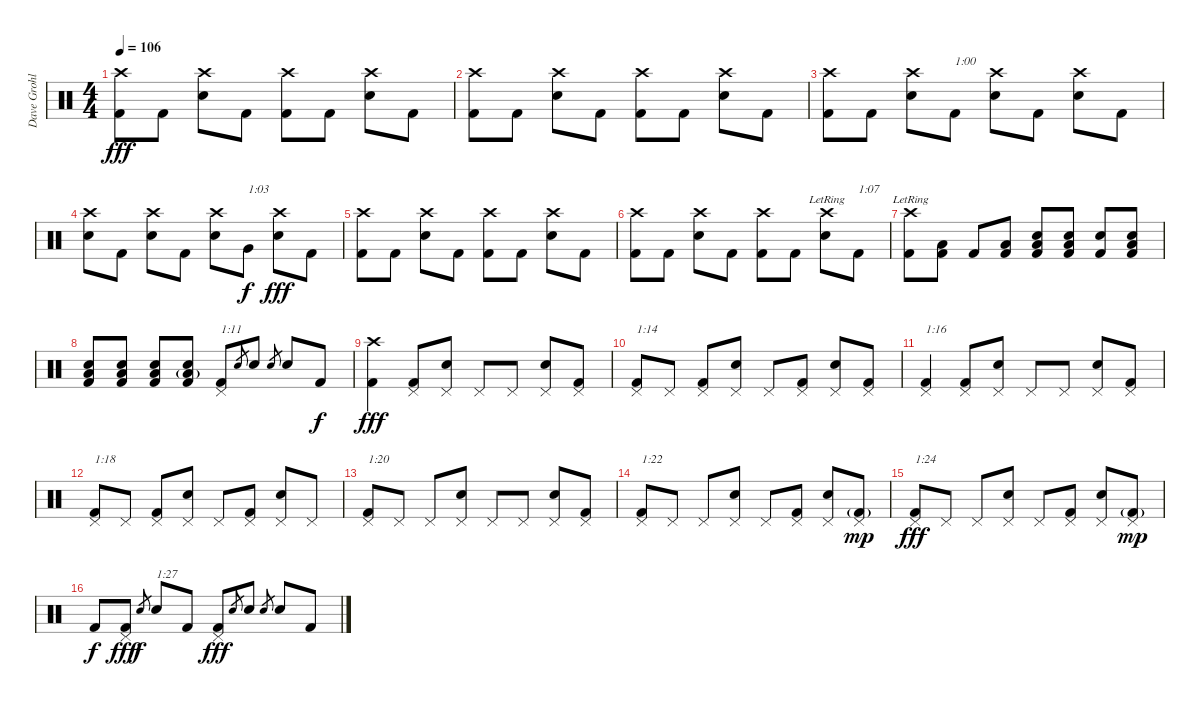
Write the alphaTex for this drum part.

\track ("Dave Grohl" "Dave Grohl") {instrument percussion}
\staff {score}
\articulation defaults
\ts (4 4)
\tempo 106
\clef neutral
\ks c
("Crash high (hit)" "Kick (hit) 2").8{dy fff} "Kick (hit) 2".8 ("Crash high (hit)" "Snare (hit) 2").8 "Kick (hit) 2".8 ("Crash high (hit)" "Kick (hit) 2").8 "Kick (hit) 2".8 ("Crash high (hit)" "Snare (hit) 2").8 "Kick (hit) 2".8 |
("Crash high (hit)" "Kick (hit) 2").8 "Kick (hit) 2".8 ("Crash high (hit)" "Snare (hit) 2").8 "Kick (hit) 2".8 ("Crash high (hit)" "Kick (hit) 2").8 "Kick (hit) 2".8 ("Crash high (hit)" "Snare (hit) 2").8 "Kick (hit) 2".8 |
("Crash high (hit)" "Kick (hit) 2").8 "Kick (hit) 2".8 ("Crash high (hit)" "Snare (hit) 2").8 "Kick (hit) 2".8{txt "1:00"} ("Crash high (hit)" "Snare (hit) 2").8 "Kick (hit) 2".8 ("Crash high (hit)" "Snare (hit) 2").8 "Kick (hit) 2".8 |
("Crash high (hit)" "Snare (hit) 2").8 "Kick (hit) 2".8 ("Crash high (hit)" "Snare (hit) 2").8 "Kick (hit) 2".8 ("Crash high (hit)" "Snare (hit) 2").8 "Very Low Tom (hit)".8{txt "1:03" dy f} ("Crash high (hit)" "Snare (hit) 2").8{dy fff} "Kick (hit) 2".8 |
("Crash high (hit)" "Kick (hit) 2").8 "Kick (hit) 2".8 ("Crash high (hit)" "Snare (hit) 2").8 "Kick (hit) 2".8 ("Crash high (hit)" "Kick (hit) 2").8 "Kick (hit) 2".8 ("Crash high (hit)" "Snare (hit) 2").8 "Kick (hit) 2".8 |
("Crash high (hit)" "Kick (hit) 2").8 "Kick (hit) 2".8 ("Crash high (hit)" "Snare (hit) 2").8 "Kick (hit) 2".8 ("Crash high (hit)" "Kick (hit) 2").8 "Kick (hit) 2".8 ("Crash high (hit)"{lr} "Snare (hit) 2").8 "Kick (hit) 2".8{txt "1:07"} |
("Crash high (hit)"{lr} "Kick (hit) 2").8 ("Low Floor Tom (hit)" "Kick (hit) 2").8 "Kick (hit) 2".8 ("Low Floor Tom (hit)" "Kick (hit) 2").8 ("Snare (hit) 2" "Low Floor Tom (hit)" "Kick (hit) 2").8 ("Snare (hit) 2" "Low Floor Tom (hit)" "Kick (hit) 2").8 ("Snare (hit) 2" "Kick (hit) 2").8 ("Snare (hit) 2" "Low Floor Tom (hit)" "Kick (hit) 2").8 |
("Snare (hit) 2" "Low Floor Tom (hit)" "Kick (hit) 2").8 ("Snare (hit) 2" "Low Floor Tom (hit)" "Kick (hit) 2").8 ("Snare (hit) 2" "Low Floor Tom (hit)" "Kick (hit) 2").8 ("Snare (hit) 2" "Low Floor Tom (hit)"{g} "Kick (hit) 2").8 ("Pedal Hi-Hat (hit)" "Kick (hit) 2").8{txt "1:11"} "Snare (hit) 2".8{gr} "Snare (hit) 2".8 "Snare (hit) 2".8{gr} "Snare (hit) 2".8 "Kick (hit) 2".8{dy f} |
("Crash high (hit)" "Kick (hit) 2").4{dy fff} ("Pedal Hi-Hat (hit)" "Kick (hit) 2").8 ("Pedal Hi-Hat (hit)" "Snare (hit) 2").8 "Pedal Hi-Hat (hit)".8 "Pedal Hi-Hat (hit)".8 ("Pedal Hi-Hat (hit)" "Snare (hit) 2").8 ("Pedal Hi-Hat (hit)" "Kick (hit) 2").8 |
("Pedal Hi-Hat (hit)" "Kick (hit) 2").8{txt "1:14"} "Pedal Hi-Hat (hit)".8 ("Pedal Hi-Hat (hit)" "Kick (hit) 2").8 ("Pedal Hi-Hat (hit)" "Snare (hit) 2").8 "Pedal Hi-Hat (hit)".8 ("Pedal Hi-Hat (hit)" "Kick (hit) 2").8 ("Pedal Hi-Hat (hit)" "Snare (hit) 2").8 ("Pedal Hi-Hat (hit)" "Kick (hit) 2").8 |
("Pedal Hi-Hat (hit)" "Kick (hit) 2").4{txt "1:16"} ("Pedal Hi-Hat (hit)" "Kick (hit) 2").8 ("Pedal Hi-Hat (hit)" "Snare (hit) 2").8 "Pedal Hi-Hat (hit)".8 "Pedal Hi-Hat (hit)".8 ("Pedal Hi-Hat (hit)" "Snare (hit) 2").8 ("Pedal Hi-Hat (hit)" "Kick (hit) 2").8 |
("Pedal Hi-Hat (hit)" "Kick (hit) 2").8{txt "1:18"} "Pedal Hi-Hat (hit)".8 ("Pedal Hi-Hat (hit)" "Kick (hit) 2").8 ("Pedal Hi-Hat (hit)" "Snare (hit) 2").8 "Pedal Hi-Hat (hit)".8 ("Pedal Hi-Hat (hit)" "Kick (hit) 2").8 ("Pedal Hi-Hat (hit)" "Snare (hit) 2").8 "Pedal Hi-Hat (hit)".8 |
("Pedal Hi-Hat (hit)" "Kick (hit) 2").8{txt "1:20"} "Pedal Hi-Hat (hit)".8 "Pedal Hi-Hat (hit)".8 ("Pedal Hi-Hat (hit)" "Snare (hit) 2").8 "Pedal Hi-Hat (hit)".8 "Pedal Hi-Hat (hit)".8 ("Pedal Hi-Hat (hit)" "Snare (hit) 2").8 ("Pedal Hi-Hat (hit)" "Kick (hit) 2").8 |
("Pedal Hi-Hat (hit)" "Kick (hit) 2").8{txt "1:22"} "Pedal Hi-Hat (hit)".8 "Pedal Hi-Hat (hit)".8 ("Pedal Hi-Hat (hit)" "Snare (hit) 2").8 "Pedal Hi-Hat (hit)".8 ("Pedal Hi-Hat (hit)" "Kick (hit) 2").8 ("Pedal Hi-Hat (hit)" "Snare (hit) 2").8 ("Pedal Hi-Hat (hit)" "Kick (hit) 2"{g}).8{dy mp} |
("Pedal Hi-Hat (hit)" "Kick (hit) 2").8{txt "1:24" dy fff} "Pedal Hi-Hat (hit)".8 "Pedal Hi-Hat (hit)".8 ("Pedal Hi-Hat (hit)" "Snare (hit) 2").8 "Pedal Hi-Hat (hit)".8 ("Pedal Hi-Hat (hit)" "Kick (hit) 2").8 ("Pedal Hi-Hat (hit)" "Snare (hit) 2").8 ("Pedal Hi-Hat (hit)" "Kick (hit) 2"{g}).8{dy mp} |
"Kick (hit) 2".8{dy f} ("Pedal Hi-Hat (hit)" "Kick (hit) 2").8{dy fff} "Snare (hit) 2".8{gr dy f} "Snare (hit) 2".8{txt "1:27"} "Kick (hit) 2".8 ("Pedal Hi-Hat (hit)" "Kick (hit) 2").8{dy fff} "Snare (hit) 2".8{gr} "Snare (hit) 2".8 "Snare (hit) 2".8{gr} "Snare (hit) 2".8 "Kick (hit) 2".8
